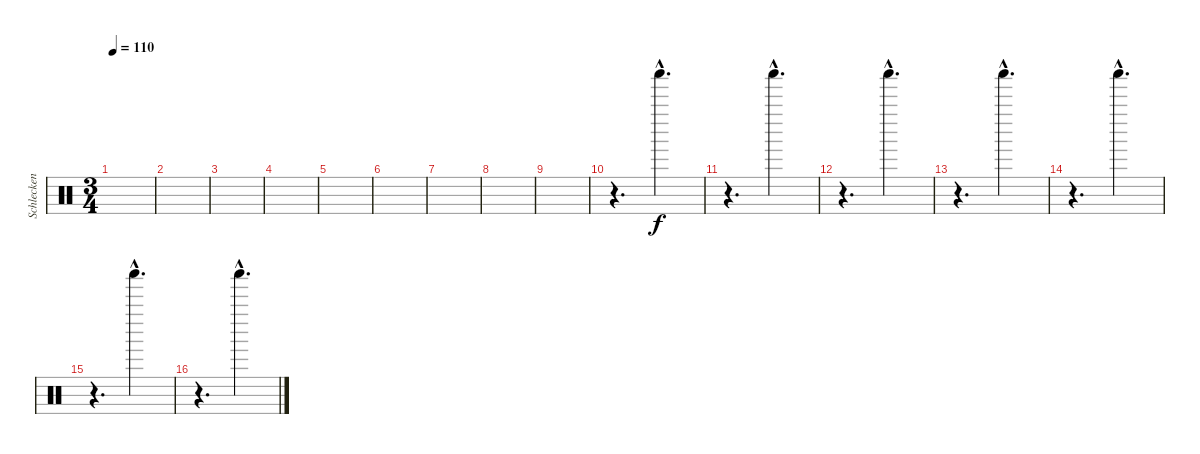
\track ("Schlecken (Bela)" "Schlecken ") {instrument percussion}
\staff {score}
\articulation defaults
\ts (3 4)
\tempo 110
\clef neutral
\ks c
|
|
|
|
|
|
|
|
|
r.4{d} "Shaker (hit)"{hac}.4{d} |
r.4{d} "Shaker (hit)"{hac}.4{d} |
r.4{d} "Shaker (hit)"{hac}.4{d} |
r.4{d} "Shaker (hit)"{hac}.4{d} |
r.4{d} "Shaker (hit)"{hac}.4{d} |
r.4{d} "Shaker (hit)"{hac}.4{d} |
r.4{d} "Shaker (hit)"{hac}.4{d}
